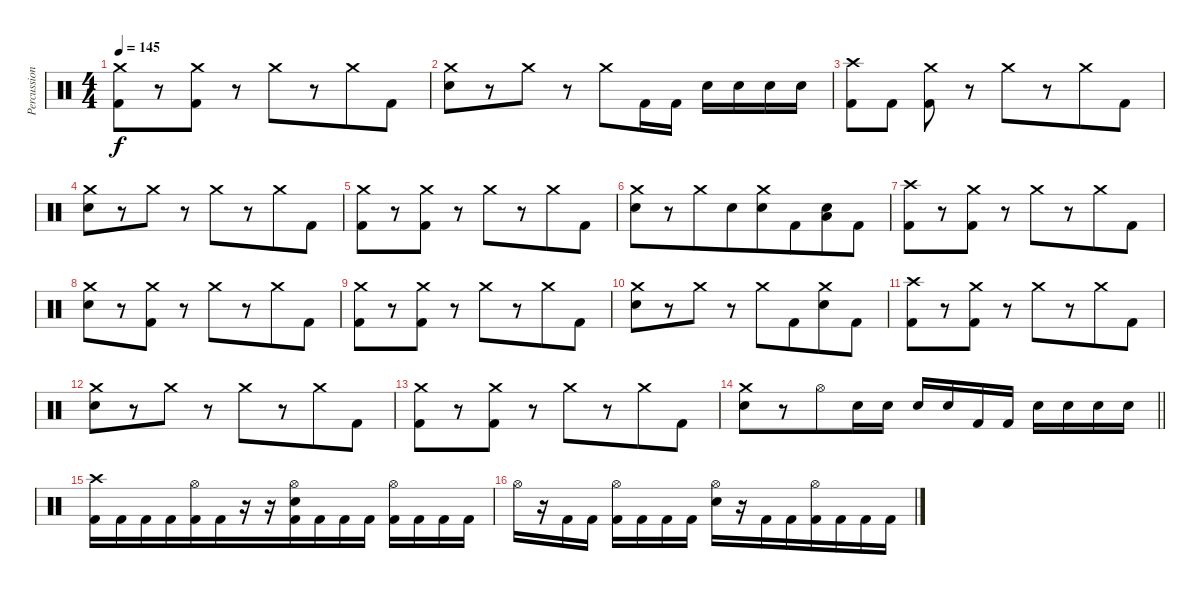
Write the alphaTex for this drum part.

\track ("Percussion" "Percussion") {instrument percussion}
\staff {score}
\articulation defaults
\ts (4 4)
\tempo 145
\clef neutral
\ks c
("Crash medium (hit)" "Kick (hit) 2").8{dy f beam merge} r.8 ("Crash medium (hit)" "Kick (hit) 2").8 r.8{beam merge} "Crash medium (hit)".8{beam merge} r.8 "Crash medium (hit)".8{beam merge} "Kick (hit) 2".8 |
("Crash medium (hit)" "Electric Snare (hit)").8{beam merge} r.8 "Crash medium (hit)".8 r.8{beam merge} "Crash medium (hit)".8{beam merge} "Kick (hit) 2".16 "Kick (hit) 2".16 "Electric Snare (hit)".16{beam merge} "Electric Snare (hit)".16 "Electric Snare (hit)".16{beam merge} "Electric Snare (hit)".16 |
("Crash high (hit)" "Kick (hit) 2").8{beam merge} "Kick (hit) 2".8 ("Crash medium (hit)" "Kick (hit) 2").8 r.8{beam merge} "Crash medium (hit)".8{beam merge} r.8 "Crash medium (hit)".8{beam merge} "Kick (hit) 2".8 |
("Crash medium (hit)" "Electric Snare (hit)").8{beam merge} r.8 "Crash medium (hit)".8 r.8{beam merge} "Crash medium (hit)".8{beam merge} r.8 "Crash medium (hit)".8{beam merge} "Kick (hit) 2".8 |
("Crash medium (hit)" "Kick (hit) 2").8{beam merge} r.8 ("Crash medium (hit)" "Kick (hit) 2").8 r.8{beam merge} "Crash medium (hit)".8{beam merge} r.8 "Crash medium (hit)".8{beam merge} "Kick (hit) 2".8 |
("Crash medium (hit)" "Electric Snare (hit)").8{beam merge} r.8 "Crash medium (hit)".8 "Electric Snare (hit)".8{beam merge} ("Crash medium (hit)" "Electric Snare (hit)").8{beam merge} "Kick (hit) 2".8{beam merge} ("Electric Snare (hit)" "Low Floor Tom (hit)").8 "Kick (hit) 2".8 |
("Crash high (hit)" "Kick (hit) 2").8{beam merge} r.8 ("Crash medium (hit)" "Kick (hit) 2").8 r.8{beam merge} "Crash medium (hit)".8{beam merge} r.8 "Crash medium (hit)".8{beam merge} "Kick (hit) 2".8 |
("Crash medium (hit)" "Electric Snare (hit)").8{beam merge} r.8 ("Crash medium (hit)" "Kick (hit) 2").8 r.8{beam merge} "Crash medium (hit)".8{beam merge} r.8 "Crash medium (hit)".8{beam merge} "Kick (hit) 2".8 |
("Crash medium (hit)" "Kick (hit) 2").8{beam merge} r.8 ("Crash medium (hit)" "Kick (hit) 2").8 r.8{beam merge} "Crash medium (hit)".8{beam merge} r.8 "Crash medium (hit)".8{beam merge} "Kick (hit) 2".8 |
("Crash medium (hit)" "Electric Snare (hit)").8{beam merge} r.8 "Crash medium (hit)".8 r.8{beam merge} "Crash medium (hit)".8{beam merge} "Kick (hit) 2".8{beam merge} ("Crash medium (hit)" "Electric Snare (hit)").8 "Kick (hit) 2".8 |
("Crash high (hit)" "Kick (hit) 2").8{beam merge} r.8 ("Crash medium (hit)" "Kick (hit) 2").8 r.8{beam merge} "Crash medium (hit)".8{beam merge} r.8 "Crash medium (hit)".8{beam merge} "Kick (hit) 2".8 |
("Crash medium (hit)" "Electric Snare (hit)").8{beam merge} r.8 "Crash medium (hit)".8 r.8{beam merge} "Crash medium (hit)".8{beam merge} r.8 "Crash medium (hit)".8{beam merge} "Kick (hit) 2".8 |
("Crash medium (hit)" "Kick (hit) 2").8{beam merge} r.8 ("Crash medium (hit)" "Kick (hit) 2").8 r.8{beam merge} "Crash medium (hit)".8{beam merge} r.8 "Crash medium (hit)".8{beam merge} "Kick (hit) 2".8 |
\barLineRight lightlight
("Crash medium (hit)" "Electric Snare (hit)").8{beam merge} r.8 "Hi-Hat (open)".8{beam merge} "Electric Snare (hit)".16 "Electric Snare (hit)".16 "Electric Snare (hit)".16 "Electric Snare (hit)".16 "Kick (hit) 2".16 "Kick (hit) 2".16 "Electric Snare (hit)".16{beam merge} "Electric Snare (hit)".16{beam merge} "Electric Snare (hit)".16 "Electric Snare (hit)".16 |
\section ("" "")
("Crash high (hit)" "Kick (hit) 2").16 "Kick (hit) 2".16{beam merge} "Kick (hit) 2".16{beam merge} "Kick (hit) 2".16{beam merge} ("Hi-Hat (open)" "Kick (hit) 2").16 "Kick (hit) 2".16{beam merge} r.16 r.16 ("Hi-Hat (open)" "Electric Snare (hit)" "Kick (hit) 2").16{beam merge} "Kick (hit) 2".16 "Kick (hit) 2".16{beam merge} "Kick (hit) 2".16 ("Hi-Hat (open)" "Kick (hit) 2").16 "Kick (hit) 2".16{beam merge} "Kick (hit) 2".16 "Kick (hit) 2".16 |
"Hi-Hat (open)".16{beam merge} r.16 "Kick (hit) 2".16{beam merge} "Kick (hit) 2".16 ("Hi-Hat (open)" "Kick (hit) 2").16{beam merge} "Kick (hit) 2".16 "Kick (hit) 2".16 "Kick (hit) 2".16 ("Hi-Hat (open)" "Electric Snare (hit)").16 r.16{beam merge} "Kick (hit) 2".16 "Kick (hit) 2".16{beam merge} ("Hi-Hat (open)" "Kick (hit) 2").16{beam merge} "Kick (hit) 2".16{beam merge} "Kick (hit) 2".16 "Kick (hit) 2".16
